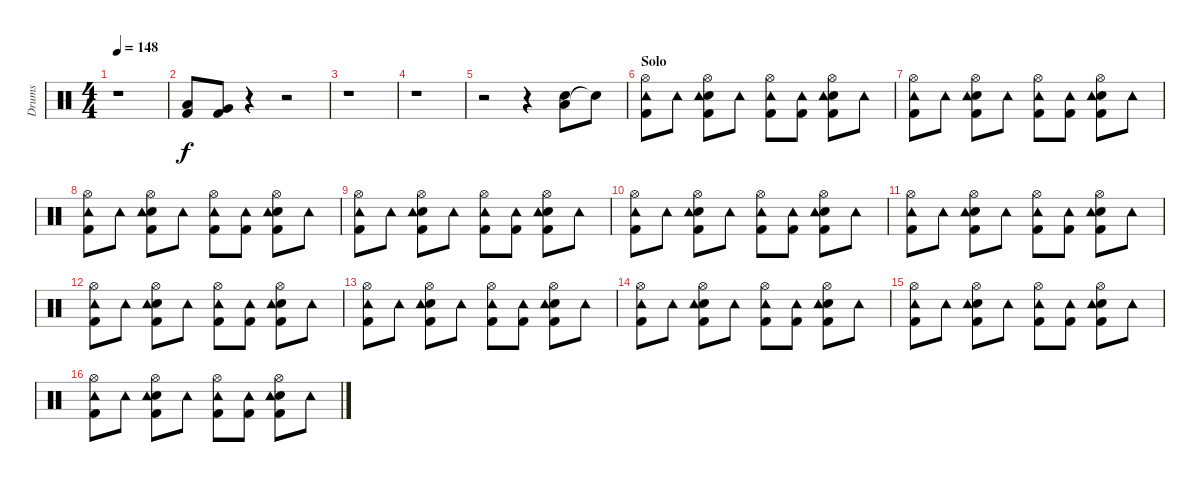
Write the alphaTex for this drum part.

\track ("Drums" "Drums") {instrument percussion}
\staff {score}
\articulation defaults
\ts (4 4)
\tempo 148
\clef neutral
\ks c
r.1{dy f} |
("Kick (hit) 2" "Low Tom (hit)").8 ("Kick (hit) 2" "Very Low Tom (hit)").8 r.4 r.2 |
r.1 |
r.1 |
r.2 r.4 ("Low Tom (hit)" "Electric Snare (hit)").8 "Snare (hit)"{t}.8 |
\section ("" "Solo")
("Kick (hit) 2" "Tambourine (hit)" "Hi-Hat (open)").8 "Tambourine (hit)".8 ("Kick (hit) 2" "Electric Snare (hit)" "Tambourine (hit)" "Hi-Hat (open)").8 "Tambourine (hit)".8 ("Kick (hit) 2" "Tambourine (hit)" "Hi-Hat (open)").8 ("Kick (hit) 2" "Tambourine (hit)").8 ("Kick (hit) 2" "Electric Snare (hit)" "Tambourine (hit)" "Hi-Hat (open)").8 "Tambourine (hit)".8 |
("Kick (hit) 2" "Tambourine (hit)" "Hi-Hat (open)").8 "Tambourine (hit)".8 ("Kick (hit) 2" "Electric Snare (hit)" "Tambourine (hit)" "Hi-Hat (open)").8 "Tambourine (hit)".8 ("Kick (hit) 2" "Tambourine (hit)" "Hi-Hat (open)").8 ("Kick (hit) 2" "Tambourine (hit)").8 ("Kick (hit) 2" "Electric Snare (hit)" "Tambourine (hit)" "Hi-Hat (open)").8 "Tambourine (hit)".8 |
("Kick (hit) 2" "Tambourine (hit)" "Hi-Hat (open)").8 "Tambourine (hit)".8 ("Kick (hit) 2" "Electric Snare (hit)" "Tambourine (hit)" "Hi-Hat (open)").8 "Tambourine (hit)".8 ("Kick (hit) 2" "Tambourine (hit)" "Hi-Hat (open)").8 ("Kick (hit) 2" "Tambourine (hit)").8 ("Kick (hit) 2" "Electric Snare (hit)" "Tambourine (hit)" "Hi-Hat (open)").8 "Tambourine (hit)".8 |
("Kick (hit) 2" "Tambourine (hit)" "Hi-Hat (open)").8 "Tambourine (hit)".8 ("Kick (hit) 2" "Electric Snare (hit)" "Tambourine (hit)" "Hi-Hat (open)").8 "Tambourine (hit)".8 ("Kick (hit) 2" "Tambourine (hit)" "Hi-Hat (open)").8 ("Kick (hit) 2" "Tambourine (hit)").8 ("Kick (hit) 2" "Electric Snare (hit)" "Tambourine (hit)" "Hi-Hat (open)").8 "Tambourine (hit)".8 |
("Kick (hit) 2" "Tambourine (hit)" "Hi-Hat (open)").8 "Tambourine (hit)".8 ("Kick (hit) 2" "Electric Snare (hit)" "Tambourine (hit)" "Hi-Hat (open)").8 "Tambourine (hit)".8 ("Kick (hit) 2" "Tambourine (hit)" "Hi-Hat (open)").8 ("Kick (hit) 2" "Tambourine (hit)").8 ("Kick (hit) 2" "Electric Snare (hit)" "Tambourine (hit)" "Hi-Hat (open)").8 "Tambourine (hit)".8 |
("Kick (hit) 2" "Tambourine (hit)" "Hi-Hat (open)").8 "Tambourine (hit)".8 ("Kick (hit) 2" "Electric Snare (hit)" "Tambourine (hit)" "Hi-Hat (open)").8 "Tambourine (hit)".8 ("Kick (hit) 2" "Tambourine (hit)" "Hi-Hat (open)").8 ("Kick (hit) 2" "Tambourine (hit)").8 ("Kick (hit) 2" "Electric Snare (hit)" "Tambourine (hit)" "Hi-Hat (open)").8 "Tambourine (hit)".8 |
("Kick (hit) 2" "Tambourine (hit)" "Hi-Hat (open)").8 "Tambourine (hit)".8 ("Kick (hit) 2" "Electric Snare (hit)" "Tambourine (hit)" "Hi-Hat (open)").8 "Tambourine (hit)".8 ("Kick (hit) 2" "Tambourine (hit)" "Hi-Hat (open)").8 ("Kick (hit) 2" "Tambourine (hit)").8 ("Kick (hit) 2" "Electric Snare (hit)" "Tambourine (hit)" "Hi-Hat (open)").8 "Tambourine (hit)".8 |
("Kick (hit) 2" "Tambourine (hit)" "Hi-Hat (open)").8 "Tambourine (hit)".8 ("Kick (hit) 2" "Electric Snare (hit)" "Tambourine (hit)" "Hi-Hat (open)").8 "Tambourine (hit)".8 ("Kick (hit) 2" "Tambourine (hit)" "Hi-Hat (open)").8 ("Kick (hit) 2" "Tambourine (hit)").8 ("Kick (hit) 2" "Electric Snare (hit)" "Tambourine (hit)" "Hi-Hat (open)").8 "Tambourine (hit)".8 |
("Kick (hit) 2" "Tambourine (hit)" "Hi-Hat (open)").8 "Tambourine (hit)".8 ("Kick (hit) 2" "Electric Snare (hit)" "Tambourine (hit)" "Hi-Hat (open)").8 "Tambourine (hit)".8 ("Kick (hit) 2" "Tambourine (hit)" "Hi-Hat (open)").8 ("Kick (hit) 2" "Tambourine (hit)").8 ("Kick (hit) 2" "Electric Snare (hit)" "Tambourine (hit)" "Hi-Hat (open)").8 "Tambourine (hit)".8 |
("Kick (hit) 2" "Tambourine (hit)" "Hi-Hat (open)").8 "Tambourine (hit)".8 ("Kick (hit) 2" "Electric Snare (hit)" "Tambourine (hit)" "Hi-Hat (open)").8 "Tambourine (hit)".8 ("Kick (hit) 2" "Tambourine (hit)" "Hi-Hat (open)").8 ("Kick (hit) 2" "Tambourine (hit)").8 ("Kick (hit) 2" "Electric Snare (hit)" "Tambourine (hit)" "Hi-Hat (open)").8 "Tambourine (hit)".8 |
("Kick (hit) 2" "Tambourine (hit)" "Hi-Hat (open)").8 "Tambourine (hit)".8 ("Kick (hit) 2" "Electric Snare (hit)" "Tambourine (hit)" "Hi-Hat (open)").8 "Tambourine (hit)".8 ("Kick (hit) 2" "Tambourine (hit)" "Hi-Hat (open)").8 ("Kick (hit) 2" "Tambourine (hit)").8 ("Kick (hit) 2" "Electric Snare (hit)" "Tambourine (hit)" "Hi-Hat (open)").8 "Tambourine (hit)".8
